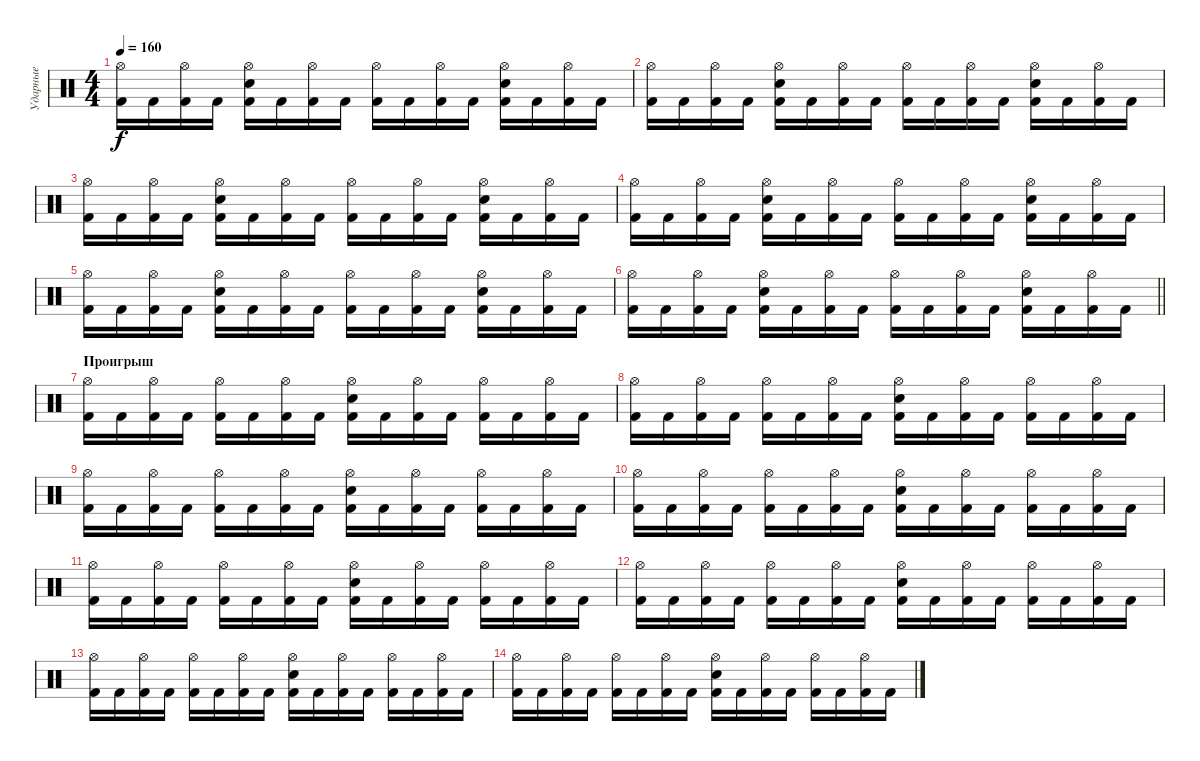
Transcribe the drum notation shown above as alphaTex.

\track ("Ударные" "Ударные") {instrument percussion}
\staff {score}
\articulation defaults
\ts (4 4)
\tempo 160
\clef neutral
\ks c
("Hi-Hat (open)" "Kick (hit) 2").16{dy f} "Kick (hit) 2".16 ("Hi-Hat (open)" "Kick (hit) 2").16 "Kick (hit) 2".16 ("Hi-Hat (open)" "Snare (hit) 2" "Kick (hit) 2").16 "Kick (hit) 2".16 ("Hi-Hat (open)" "Kick (hit) 2").16 "Kick (hit) 2".16 ("Hi-Hat (open)" "Kick (hit) 2").16 "Kick (hit) 2".16 ("Hi-Hat (open)" "Kick (hit) 2").16 "Kick (hit) 2".16 ("Hi-Hat (open)" "Snare (hit) 2" "Kick (hit) 2").16 "Kick (hit) 2".16 ("Hi-Hat (open)" "Kick (hit) 2").16 "Kick (hit) 2".16 |
("Hi-Hat (open)" "Kick (hit) 2").16 "Kick (hit) 2".16 ("Hi-Hat (open)" "Kick (hit) 2").16 "Kick (hit) 2".16 ("Hi-Hat (open)" "Snare (hit) 2" "Kick (hit) 2").16 "Kick (hit) 2".16 ("Hi-Hat (open)" "Kick (hit) 2").16 "Kick (hit) 2".16 ("Hi-Hat (open)" "Kick (hit) 2").16 "Kick (hit) 2".16 ("Hi-Hat (open)" "Kick (hit) 2").16 "Kick (hit) 2".16 ("Hi-Hat (open)" "Snare (hit) 2" "Kick (hit) 2").16 "Kick (hit) 2".16 ("Hi-Hat (open)" "Kick (hit) 2").16 "Kick (hit) 2".16 |
("Hi-Hat (open)" "Kick (hit) 2").16 "Kick (hit) 2".16 ("Hi-Hat (open)" "Kick (hit) 2").16 "Kick (hit) 2".16 ("Hi-Hat (open)" "Snare (hit) 2" "Kick (hit) 2").16 "Kick (hit) 2".16 ("Hi-Hat (open)" "Kick (hit) 2").16 "Kick (hit) 2".16 ("Hi-Hat (open)" "Kick (hit) 2").16 "Kick (hit) 2".16 ("Hi-Hat (open)" "Kick (hit) 2").16 "Kick (hit) 2".16 ("Hi-Hat (open)" "Snare (hit) 2" "Kick (hit) 2").16 "Kick (hit) 2".16 ("Hi-Hat (open)" "Kick (hit) 2").16 "Kick (hit) 2".16 |
("Hi-Hat (open)" "Kick (hit) 2").16 "Kick (hit) 2".16 ("Hi-Hat (open)" "Kick (hit) 2").16 "Kick (hit) 2".16 ("Hi-Hat (open)" "Snare (hit) 2" "Kick (hit) 2").16 "Kick (hit) 2".16 ("Hi-Hat (open)" "Kick (hit) 2").16 "Kick (hit) 2".16 ("Hi-Hat (open)" "Kick (hit) 2").16 "Kick (hit) 2".16 ("Hi-Hat (open)" "Kick (hit) 2").16 "Kick (hit) 2".16 ("Hi-Hat (open)" "Snare (hit) 2" "Kick (hit) 2").16 "Kick (hit) 2".16 ("Hi-Hat (open)" "Kick (hit) 2").16 "Kick (hit) 2".16 |
("Hi-Hat (open)" "Kick (hit) 2").16 "Kick (hit) 2".16 ("Hi-Hat (open)" "Kick (hit) 2").16 "Kick (hit) 2".16 ("Hi-Hat (open)" "Snare (hit) 2" "Kick (hit) 2").16 "Kick (hit) 2".16 ("Hi-Hat (open)" "Kick (hit) 2").16 "Kick (hit) 2".16 ("Hi-Hat (open)" "Kick (hit) 2").16 "Kick (hit) 2".16 ("Hi-Hat (open)" "Kick (hit) 2").16 "Kick (hit) 2".16 ("Hi-Hat (open)" "Snare (hit) 2" "Kick (hit) 2").16 "Kick (hit) 2".16 ("Hi-Hat (open)" "Kick (hit) 2").16 "Kick (hit) 2".16 |
\barLineRight lightlight
("Hi-Hat (open)" "Kick (hit) 2").16 "Kick (hit) 2".16 ("Hi-Hat (open)" "Kick (hit) 2").16 "Kick (hit) 2".16 ("Hi-Hat (open)" "Snare (hit) 2" "Kick (hit) 2").16 "Kick (hit) 2".16 ("Hi-Hat (open)" "Kick (hit) 2").16 "Kick (hit) 2".16 ("Hi-Hat (open)" "Kick (hit) 2").16 "Kick (hit) 2".16 ("Hi-Hat (open)" "Kick (hit) 2").16 "Kick (hit) 2".16 ("Hi-Hat (open)" "Snare (hit) 2" "Kick (hit) 2").16 "Kick (hit) 2".16 ("Hi-Hat (open)" "Kick (hit) 2").16 "Kick (hit) 2".16 |
\section ("" "Проигрыш")
("Hi-Hat (open)" "Kick (hit) 2").16 "Kick (hit) 2".16 ("Hi-Hat (open)" "Kick (hit) 2").16 "Kick (hit) 2".16 ("Hi-Hat (open)" "Kick (hit) 2").16 "Kick (hit) 2".16 ("Hi-Hat (open)" "Kick (hit) 2").16 "Kick (hit) 2".16 ("Hi-Hat (open)" "Snare (hit) 2" "Kick (hit) 2").16 "Kick (hit) 2".16 ("Hi-Hat (open)" "Kick (hit) 2").16 "Kick (hit) 2".16 ("Hi-Hat (open)" "Kick (hit) 2").16 "Kick (hit) 2".16 ("Hi-Hat (open)" "Kick (hit) 2").16 "Kick (hit) 2".16 |
("Hi-Hat (open)" "Kick (hit) 2").16 "Kick (hit) 2".16 ("Hi-Hat (open)" "Kick (hit) 2").16 "Kick (hit) 2".16 ("Hi-Hat (open)" "Kick (hit) 2").16 "Kick (hit) 2".16 ("Hi-Hat (open)" "Kick (hit) 2").16 "Kick (hit) 2".16 ("Hi-Hat (open)" "Snare (hit) 2" "Kick (hit) 2").16 "Kick (hit) 2".16 ("Hi-Hat (open)" "Kick (hit) 2").16 "Kick (hit) 2".16 ("Hi-Hat (open)" "Kick (hit) 2").16 "Kick (hit) 2".16 ("Hi-Hat (open)" "Kick (hit) 2").16 "Kick (hit) 2".16 |
("Hi-Hat (open)" "Kick (hit) 2").16 "Kick (hit) 2".16 ("Hi-Hat (open)" "Kick (hit) 2").16 "Kick (hit) 2".16 ("Hi-Hat (open)" "Kick (hit) 2").16 "Kick (hit) 2".16 ("Hi-Hat (open)" "Kick (hit) 2").16 "Kick (hit) 2".16 ("Hi-Hat (open)" "Snare (hit) 2" "Kick (hit) 2").16 "Kick (hit) 2".16 ("Hi-Hat (open)" "Kick (hit) 2").16 "Kick (hit) 2".16 ("Hi-Hat (open)" "Kick (hit) 2").16 "Kick (hit) 2".16 ("Hi-Hat (open)" "Kick (hit) 2").16 "Kick (hit) 2".16 |
("Hi-Hat (open)" "Kick (hit) 2").16 "Kick (hit) 2".16 ("Hi-Hat (open)" "Kick (hit) 2").16 "Kick (hit) 2".16 ("Hi-Hat (open)" "Kick (hit) 2").16 "Kick (hit) 2".16 ("Hi-Hat (open)" "Kick (hit) 2").16 "Kick (hit) 2".16 ("Hi-Hat (open)" "Snare (hit) 2" "Kick (hit) 2").16 "Kick (hit) 2".16 ("Hi-Hat (open)" "Kick (hit) 2").16 "Kick (hit) 2".16 ("Hi-Hat (open)" "Kick (hit) 2").16 "Kick (hit) 2".16 ("Hi-Hat (open)" "Kick (hit) 2").16 "Kick (hit) 2".16 |
("Hi-Hat (open)" "Kick (hit) 2").16 "Kick (hit) 2".16 ("Hi-Hat (open)" "Kick (hit) 2").16 "Kick (hit) 2".16 ("Hi-Hat (open)" "Kick (hit) 2").16 "Kick (hit) 2".16 ("Hi-Hat (open)" "Kick (hit) 2").16 "Kick (hit) 2".16 ("Hi-Hat (open)" "Snare (hit) 2" "Kick (hit) 2").16 "Kick (hit) 2".16 ("Hi-Hat (open)" "Kick (hit) 2").16 "Kick (hit) 2".16 ("Hi-Hat (open)" "Kick (hit) 2").16 "Kick (hit) 2".16 ("Hi-Hat (open)" "Kick (hit) 2").16 "Kick (hit) 2".16 |
("Hi-Hat (open)" "Kick (hit) 2").16 "Kick (hit) 2".16 ("Hi-Hat (open)" "Kick (hit) 2").16 "Kick (hit) 2".16 ("Hi-Hat (open)" "Kick (hit) 2").16 "Kick (hit) 2".16 ("Hi-Hat (open)" "Kick (hit) 2").16 "Kick (hit) 2".16 ("Hi-Hat (open)" "Snare (hit) 2" "Kick (hit) 2").16 "Kick (hit) 2".16 ("Hi-Hat (open)" "Kick (hit) 2").16 "Kick (hit) 2".16 ("Hi-Hat (open)" "Kick (hit) 2").16 "Kick (hit) 2".16 ("Hi-Hat (open)" "Kick (hit) 2").16 "Kick (hit) 2".16 |
("Hi-Hat (open)" "Kick (hit) 2").16 "Kick (hit) 2".16 ("Hi-Hat (open)" "Kick (hit) 2").16 "Kick (hit) 2".16 ("Hi-Hat (open)" "Kick (hit) 2").16 "Kick (hit) 2".16 ("Hi-Hat (open)" "Kick (hit) 2").16 "Kick (hit) 2".16 ("Hi-Hat (open)" "Snare (hit) 2" "Kick (hit) 2").16 "Kick (hit) 2".16 ("Hi-Hat (open)" "Kick (hit) 2").16 "Kick (hit) 2".16 ("Hi-Hat (open)" "Kick (hit) 2").16 "Kick (hit) 2".16 ("Hi-Hat (open)" "Kick (hit) 2").16 "Kick (hit) 2".16 |
("Hi-Hat (open)" "Kick (hit) 2").16 "Kick (hit) 2".16 ("Hi-Hat (open)" "Kick (hit) 2").16 "Kick (hit) 2".16 ("Hi-Hat (open)" "Kick (hit) 2").16 "Kick (hit) 2".16 ("Hi-Hat (open)" "Kick (hit) 2").16 "Kick (hit) 2".16 ("Hi-Hat (open)" "Snare (hit) 2" "Kick (hit) 2").16 "Kick (hit) 2".16 ("Hi-Hat (open)" "Kick (hit) 2").16 "Kick (hit) 2".16 ("Hi-Hat (open)" "Kick (hit) 2").16 "Kick (hit) 2".16 ("Hi-Hat (open)" "Kick (hit) 2").16 "Kick (hit) 2".16
